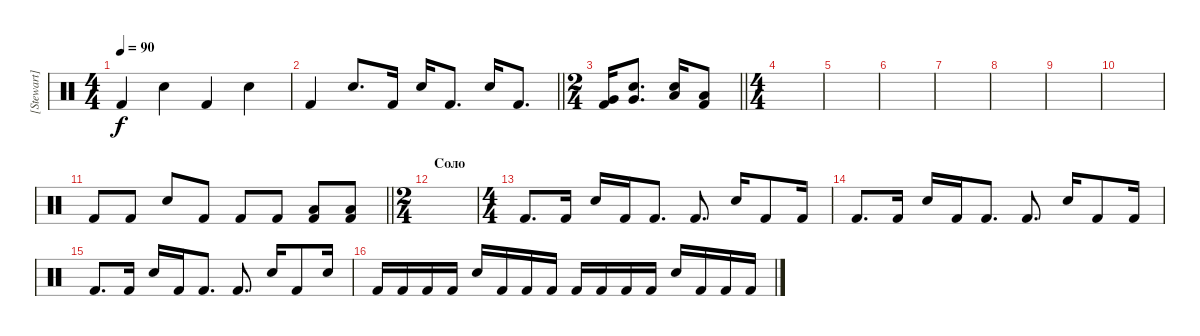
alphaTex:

\track ("[Stewart] (drums)" "[Stewart] ") {instrument percussion}
\staff {score}
\articulation defaults
\ts (4 4)
\tempo 90
\clef neutral
\ks c "Kick (hit) 2".4{dy f} "Snare (hit) 2".4 "Kick (hit) 2".4 "Snare (hit) 2".4
|
\barLineRight lightlight "Kick (hit) 2".4 "Snare (hit) 2".8{d} "Kick (hit) 2".16 "Snare (hit) 2".16 "Kick (hit) 2".8{d} "Snare (hit) 2".16 "Kick (hit) 2".8{d}
|
\ts (2 4)
\barLineRight lightlight
("Kick (hit) 2" "Very Low Tom (hit)").16 ("Snare (hit) 2" "Very Low Tom (hit)").8{d} ("Snare (hit) 2" "Low Floor Tom (hit)").16 ("Kick (hit) 2" "Low Floor Tom (hit)").8 |
\ts (4 4)
|
|
|
|
|
|
|
\barLineRight lightlight "Kick (hit) 2".8 "Kick (hit) 2".8 "Snare (hit) 2".8 "Kick (hit) 2".8 "Kick (hit) 2".8 "Kick (hit) 2".8
("Kick (hit) 2" "Low Tom (hit)").8 ("Kick (hit) 2" "Low Tom (hit)").8 |
\ts (2 4)
\section ("" "Соло")
|
\ts (4 4)
"Kick (hit) 2".8{d} "Kick (hit) 2".16 "Snare (hit) 2".16 "Kick (hit) 2".16 "Kick (hit) 2".8{d} "Kick (hit) 2".8{d} "Snare (hit) 2".16 "Kick (hit) 2".8 "Kick (hit) 2".16 |
"Kick (hit) 2".8{d} "Kick (hit) 2".16 "Snare (hit) 2".16 "Kick (hit) 2".16 "Kick (hit) 2".8{d} "Kick (hit) 2".8{d} "Snare (hit) 2".16 "Kick (hit) 2".8 "Kick (hit) 2".16 |
"Kick (hit) 2".8{d} "Kick (hit) 2".16 "Snare (hit) 2".16 "Kick (hit) 2".16 "Kick (hit) 2".8{d} "Kick (hit) 2".8{d} "Snare (hit) 2".16 "Kick (hit) 2".8 "Snare (hit) 2".16 |
"Kick (hit) 2".16 "Kick (hit) 2".16 "Kick (hit) 2".16 "Kick (hit) 2".16 "Snare (hit) 2".16 "Kick (hit) 2".16 "Kick (hit) 2".16 "Kick (hit) 2".16 "Kick (hit) 2".16 "Kick (hit) 2".16 "Kick (hit) 2".16 "Kick (hit) 2".16 "Snare (hit) 2".16 "Kick (hit) 2".16 "Kick (hit) 2".16 "Kick (hit) 2".16
